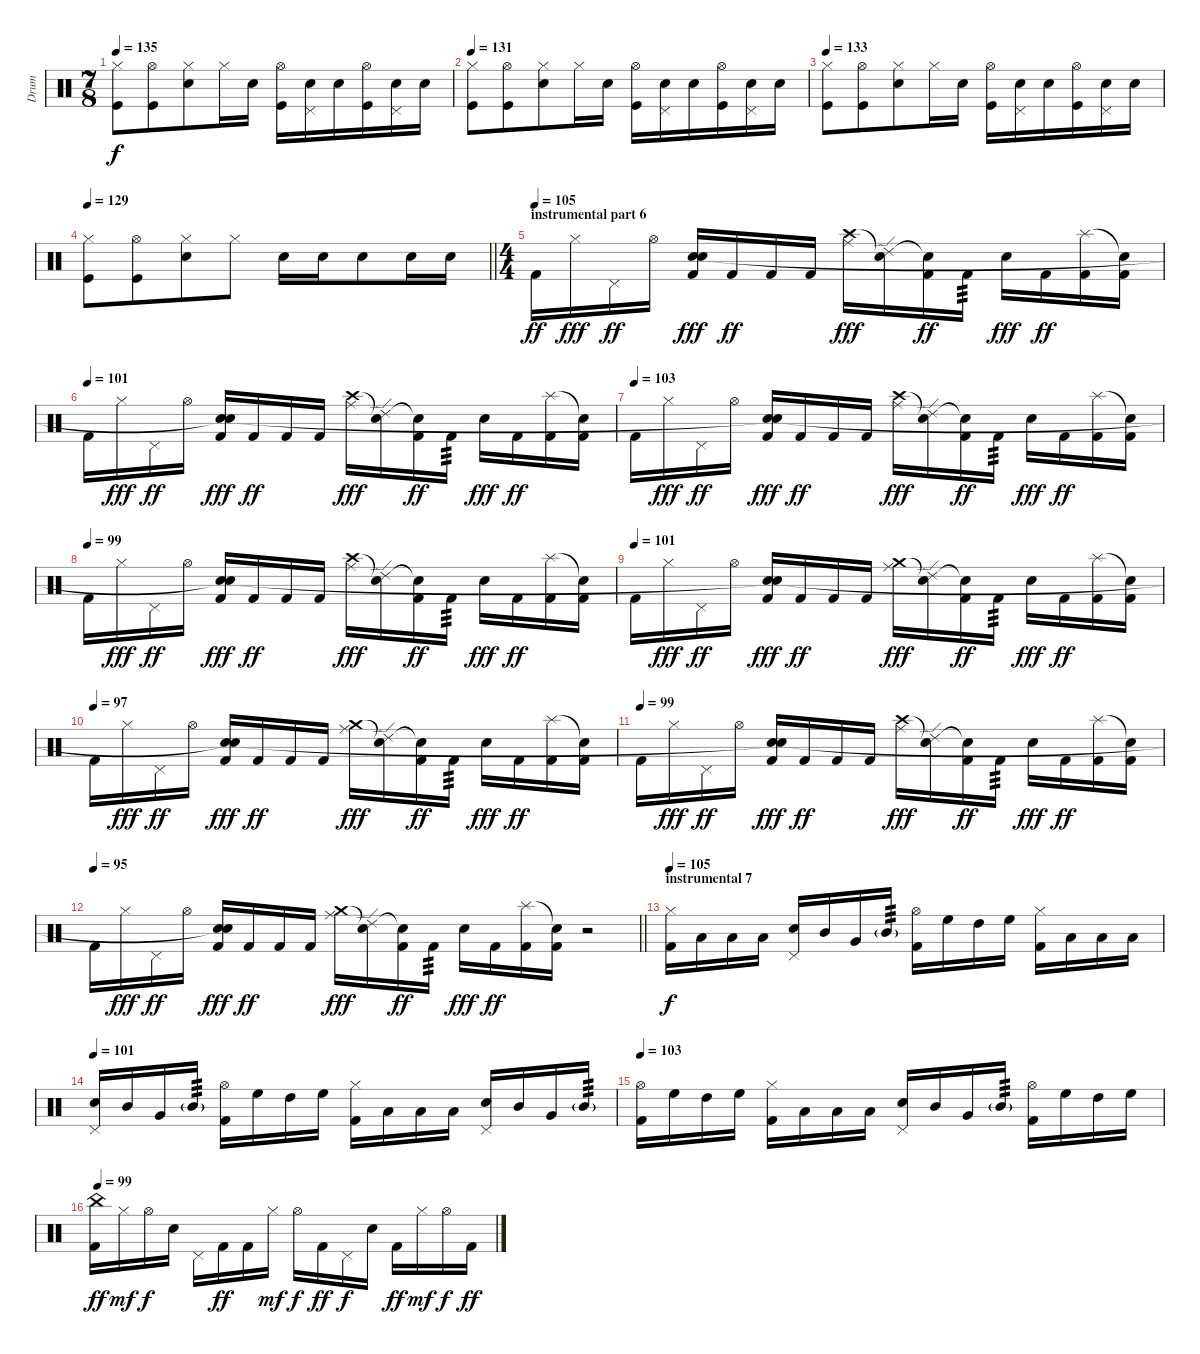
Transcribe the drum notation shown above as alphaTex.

\track ("Drum" "Drum") {instrument percussion}
\staff {score}
\articulation defaults
\ts (7 8)
\tempo 135
\clef neutral
\ks c
("Hi-Hat (closed)" "Kick (hit)").8{dy f} ("Hi-Hat (open)" "Kick (hit)").8 ("Hi-Hat (closed)" "Snare (hit) 2").8 "Hi-Hat (closed)".16 "Snare (hit) 2".16 ("Hi-Hat (open)" "Kick (hit)").16 ("Pedal Hi-Hat (hit)" "Snare (hit) 2").16 "Snare (hit) 2".16 ("Hi-Hat (open)" "Kick (hit)").16 ("Pedal Hi-Hat (hit)" "Snare (hit) 2").16 "Snare (hit) 2".16 |
\tempo 131
("Hi-Hat (closed)" "Kick (hit)").8 ("Hi-Hat (open)" "Kick (hit)").8 ("Hi-Hat (closed)" "Snare (hit) 2").8 "Hi-Hat (closed)".16 "Snare (hit) 2".16 ("Hi-Hat (open)" "Kick (hit)").16 ("Pedal Hi-Hat (hit)" "Snare (hit) 2").16 "Snare (hit) 2".16 ("Hi-Hat (open)" "Kick (hit)").16 ("Pedal Hi-Hat (hit)" "Snare (hit) 2").16 "Snare (hit) 2".16 |
\tempo 133
("Hi-Hat (closed)" "Kick (hit)").8 ("Hi-Hat (open)" "Kick (hit)").8 ("Hi-Hat (closed)" "Snare (hit) 2").8 "Hi-Hat (closed)".16 "Snare (hit) 2".16 ("Hi-Hat (open)" "Kick (hit)").16 ("Pedal Hi-Hat (hit)" "Snare (hit) 2").16 "Snare (hit) 2".16 ("Hi-Hat (open)" "Kick (hit)").16 ("Pedal Hi-Hat (hit)" "Snare (hit) 2").16 "Snare (hit) 2".16 |
\tempo 129
\barLineRight lightlight
("Hi-Hat (closed)" "Kick (hit)").8 ("Hi-Hat (open)" "Kick (hit)").8 ("Hi-Hat (closed)" "Snare (hit) 2").8 "Hi-Hat (closed)".8 "Snare (hit) 2".16 "Snare (hit) 2".16 "Snare (hit) 2".8 "Snare (hit) 2".16 "Snare (hit) 2".16 |
\ts (4 4)
\section ("" "instrumental part 6")
\tempo (105)
"Kick (hit) 2".16{dy ff} "Hi-Hat (closed)".16{dy fff} "Pedal Hi-Hat (hit)".16{dy ff} "Hi-Hat (open)".16 ("Kick (hit) 2" "Electric Snare (hit)" "Snare (hit)").16{dy fff} "Kick (hit) 2".16{dy ff} "Kick (hit) 2".16 "Kick (hit) 2".16 ("Crash high (hit)" "Ride (middle)").16{dy fff} ("Snare (hit)"{t} "Ride (edge) 2").16 ("Kick (hit) 2" "Snare (hit)"{t}).16{dy ff} "Kick (hit) 2".16{tp 3} "Electric Snare (hit)".16{dy fff} "Kick (hit) 2".16{dy ff} ("Kick (hit) 2" "Splash (hit)").16 ("Kick (hit) 2" "Snare (hit)"{t}).16 |
\tempo (101)
"Kick (hit) 2".16 "Hi-Hat (closed)".16{dy fff} "Pedal Hi-Hat (hit)".16{dy ff} "Hi-Hat (open)".16 ("Kick (hit) 2" "Electric Snare (hit)" "Snare (hit)"{t}).16{dy fff} "Kick (hit) 2".16{dy ff} "Kick (hit) 2".16 "Kick (hit) 2".16 ("Crash high (hit)" "Ride (middle)").16{dy fff} ("Snare (hit)"{t} "Ride (edge) 2").16 ("Kick (hit) 2" "Snare (hit)"{t}).16{dy ff} "Kick (hit) 2".16{tp 3} "Electric Snare (hit)".16{dy fff} "Kick (hit) 2".16{dy ff} ("Kick (hit) 2" "Splash (hit)").16 ("Kick (hit) 2" "Snare (hit)"{t}).16 |
\tempo (103)
"Kick (hit) 2".16 "Hi-Hat (closed)".16{dy fff} "Pedal Hi-Hat (hit)".16{dy ff} "Hi-Hat (open)".16 ("Kick (hit) 2" "Electric Snare (hit)" "Snare (hit)"{t}).16{dy fff} "Kick (hit) 2".16{dy ff} "Kick (hit) 2".16 "Kick (hit) 2".16 ("Crash high (hit)" "Ride (middle)").16{dy fff} ("Snare (hit)"{t} "Ride (edge) 2").16 ("Kick (hit) 2" "Snare (hit)"{t}).16{dy ff} "Kick (hit) 2".16{tp 3} "Electric Snare (hit)".16{dy fff} "Kick (hit) 2".16{dy ff} ("Kick (hit) 2" "Splash (hit)").16 ("Kick (hit) 2" "Snare (hit)"{t}).16 |
\tempo (99)
"Kick (hit) 2".16 "Hi-Hat (closed)".16{dy fff} "Pedal Hi-Hat (hit)".16{dy ff} "Hi-Hat (open)".16 ("Kick (hit) 2" "Electric Snare (hit)" "Snare (hit)"{t}).16{dy fff} "Kick (hit) 2".16{dy ff} "Kick (hit) 2".16 "Kick (hit) 2".16 ("Crash high (hit)" "Ride (middle)").16{dy fff} ("Snare (hit)"{t} "Ride (edge) 2").16 ("Kick (hit) 2" "Snare (hit)"{t}).16{dy ff} "Kick (hit) 2".16{tp 3} "Electric Snare (hit)".16{dy fff} "Kick (hit) 2".16{dy ff} ("Kick (hit) 2" "Splash (hit)").16 ("Kick (hit) 2" "Snare (hit)"{t}).16 |
\tempo (101)
"Kick (hit) 2".16 "Hi-Hat (closed)".16{dy fff} "Pedal Hi-Hat (hit)".16{dy ff} "Hi-Hat (open)".16 ("Kick (hit) 2" "Electric Snare (hit)" "Snare (hit)"{t}).16{dy fff} "Kick (hit) 2".16{dy ff} "Kick (hit) 2".16 "Kick (hit) 2".16 ("Crash medium (hit)" "Ride (middle)").16{dy fff} ("Snare (hit)"{t} "Ride (edge) 2").16 ("Kick (hit) 2" "Snare (hit)"{t}).16{dy ff} "Kick (hit) 2".16{tp 3} "Electric Snare (hit)".16{dy fff} "Kick (hit) 2".16{dy ff} ("Kick (hit) 2" "Splash (hit)").16 ("Kick (hit) 2" "Snare (hit)"{t}).16 |
\tempo (97)
"Kick (hit) 2".16 "Hi-Hat (closed)".16{dy fff} "Pedal Hi-Hat (hit)".16{dy ff} "Hi-Hat (open)".16 ("Kick (hit) 2" "Electric Snare (hit)" "Snare (hit)"{t}).16{dy fff} "Kick (hit) 2".16{dy ff} "Kick (hit) 2".16 "Kick (hit) 2".16 ("Crash medium (hit)" "Ride (middle)").16{dy fff} ("Snare (hit)"{t} "Ride (edge) 2").16 ("Kick (hit) 2" "Snare (hit)"{t}).16{dy ff} "Kick (hit) 2".16{tp 3} "Electric Snare (hit)".16{dy fff} "Kick (hit) 2".16{dy ff} ("Kick (hit) 2" "Splash (hit)").16 ("Kick (hit) 2" "Snare (hit)"{t}).16 |
\tempo (99)
"Kick (hit) 2".16 "Hi-Hat (closed)".16{dy fff} "Pedal Hi-Hat (hit)".16{dy ff} "Hi-Hat (open)".16 ("Kick (hit) 2" "Electric Snare (hit)" "Snare (hit)"{t}).16{dy fff} "Kick (hit) 2".16{dy ff} "Kick (hit) 2".16 "Kick (hit) 2".16 ("Crash high (hit)" "Ride (middle)").16{dy fff} ("Snare (hit)"{t} "Ride (edge) 2").16 ("Kick (hit) 2" "Snare (hit)"{t}).16{dy ff} "Kick (hit) 2".16{tp 3} "Electric Snare (hit)".16{dy fff} "Kick (hit) 2".16{dy ff} ("Kick (hit) 2" "Splash (hit)").16 ("Kick (hit) 2" "Snare (hit)"{t}).16 |
\tempo 95
\barLineRight lightlight "Kick (hit) 2".16 "Hi-Hat (closed)".16{dy fff} "Pedal Hi-Hat (hit)".16{dy ff} "Hi-Hat (open)".16
("Kick (hit) 2" "Electric Snare (hit)" "Snare (hit)"{t}).16{dy fff} "Kick (hit) 2".16{dy ff} "Kick (hit) 2".16 "Kick (hit) 2".16 ("Crash medium (hit)" "Ride (middle)").16{dy fff} ("Snare (hit)"{t} "Ride (edge) 2").16 ("Kick (hit) 2" "Snare (hit)"{t}).16{dy ff} "Kick (hit) 2".16{tp 3} "Electric Snare (hit)".16{dy fff} "Kick (hit) 2".16{dy ff} ("Kick (hit) 2" "Splash (hit)").16 ("Kick (hit) 2" "Snare (hit)"{t}).16 r.2 |
\section ("" "instrumental 7")
\tempo 105
("Kick (hit) 2" "Hi-Hat (closed)").16{dy f} "Low Floor Tom (hit)".16 "Low Tom (hit)".16 "Low Floor Tom (hit)".16 ("Electric Snare (hit)" "Pedal Hi-Hat (hit)").16 "Mid Tom (hit)".16 "Very Low Tom (hit)".16 "Mid Tom (hit)"{g}.16{tp 3} ("Kick (hit) 2" "Hi-Hat (open)").16 "High Floor Tom (hit)".16 "High Tom (hit)".16 "High Floor Tom (hit)".16 ("Kick (hit) 2" "Hi-Hat (closed)").16 "Low Floor Tom (hit)".16 "Low Tom (hit)".16 "Low Floor Tom (hit)".16 |
\tempo 101
("Electric Snare (hit)" "Pedal Hi-Hat (hit)").16 "Mid Tom (hit)".16 "Very Low Tom (hit)".16 "Mid Tom (hit)"{g}.16{tp 3} ("Kick (hit) 2" "Hi-Hat (open)").16 "High Floor Tom (hit)".16 "High Tom (hit)".16 "High Floor Tom (hit)".16 ("Kick (hit) 2" "Hi-Hat (closed)").16 "Low Floor Tom (hit)".16 "Low Tom (hit)".16 "Low Floor Tom (hit)".16 ("Electric Snare (hit)" "Pedal Hi-Hat (hit)").16 "Mid Tom (hit)".16 "Very Low Tom (hit)".16 "Mid Tom (hit)"{g}.16{tp 3} |
\tempo 103
("Kick (hit) 2" "Hi-Hat (open)").16 "High Floor Tom (hit)".16 "High Tom (hit)".16 "High Floor Tom (hit)".16 ("Kick (hit) 2" "Hi-Hat (closed)").16 "Low Floor Tom (hit)".16 "Low Tom (hit)".16 "Low Floor Tom (hit)".16 ("Electric Snare (hit)" "Pedal Hi-Hat (hit)").16 "Mid Tom (hit)".16 "Very Low Tom (hit)".16 "Mid Tom (hit)"{g}.16{tp 3} ("Kick (hit) 2" "Hi-Hat (open)").16 "High Floor Tom (hit)".16 "High Tom (hit)".16 "High Floor Tom (hit)".16 |
\tempo 99
("Kick (hit) 2" "China (hit)").16{dy ff} "Hi-Hat (closed)".16{dy mf} "Hi-Hat (open)".16{dy f} "Electric Snare (hit)".16 "Pedal Hi-Hat (hit)".16 "Kick (hit) 2".16{dy ff} "Kick (hit) 2".16 "Hi-Hat (closed)".16{dy mf} "Hi-Hat (open)".16{dy f} "Kick (hit) 2".16{dy ff} "Pedal Hi-Hat (hit)".16{dy f} "Electric Snare (hit)".16 "Kick (hit) 2".16{dy ff} "Hi-Hat (closed)".16{dy mf} "Hi-Hat (open)".16{dy f} "Kick (hit) 2".16{dy ff}
